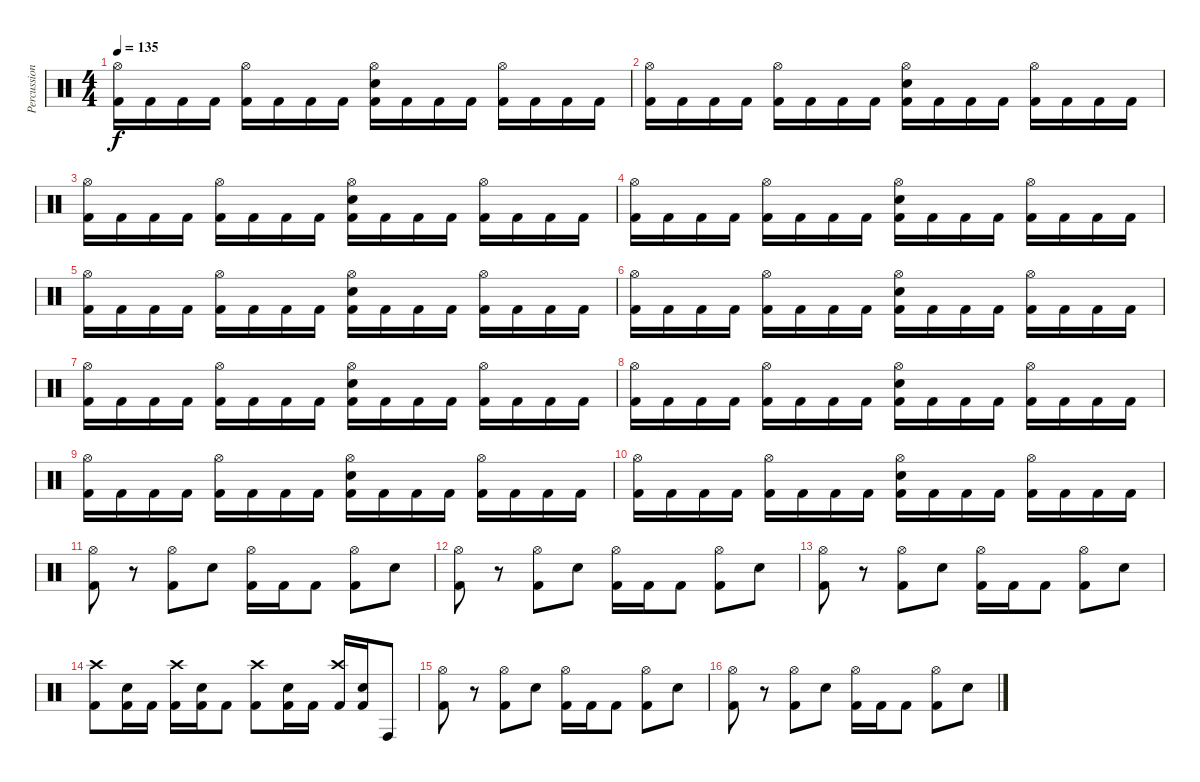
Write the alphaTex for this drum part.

\track ("Percussion" "Percussion") {instrument percussion}
\staff {score}
\articulation defaults
\ts (4 4)
\tempo 135
\clef neutral
\ks c
("Hi-Hat (open)" "Kick (hit) 2").16{dy f} "Kick (hit) 2".16 "Kick (hit) 2".16 "Kick (hit) 2".16 ("Hi-Hat (open)" "Kick (hit) 2").16 "Kick (hit) 2".16 "Kick (hit) 2".16 "Kick (hit) 2".16 ("Hi-Hat (open)" "Snare (hit) 2" "Kick (hit) 2").16 "Kick (hit) 2".16 "Kick (hit) 2".16 "Kick (hit) 2".16 ("Hi-Hat (open)" "Kick (hit) 2").16 "Kick (hit) 2".16 "Kick (hit) 2".16 "Kick (hit) 2".16 |
("Hi-Hat (open)" "Kick (hit) 2").16 "Kick (hit) 2".16 "Kick (hit) 2".16 "Kick (hit) 2".16 ("Hi-Hat (open)" "Kick (hit) 2").16 "Kick (hit) 2".16 "Kick (hit) 2".16 "Kick (hit) 2".16 ("Hi-Hat (open)" "Snare (hit) 2" "Kick (hit) 2").16 "Kick (hit) 2".16 "Kick (hit) 2".16 "Kick (hit) 2".16 ("Hi-Hat (open)" "Kick (hit) 2").16 "Kick (hit) 2".16 "Kick (hit) 2".16 "Kick (hit) 2".16 |
("Hi-Hat (open)" "Kick (hit) 2").16 "Kick (hit) 2".16 "Kick (hit) 2".16 "Kick (hit) 2".16 ("Hi-Hat (open)" "Kick (hit) 2").16 "Kick (hit) 2".16 "Kick (hit) 2".16 "Kick (hit) 2".16 ("Hi-Hat (open)" "Snare (hit) 2" "Kick (hit) 2").16 "Kick (hit) 2".16 "Kick (hit) 2".16 "Kick (hit) 2".16 ("Hi-Hat (open)" "Kick (hit) 2").16 "Kick (hit) 2".16 "Kick (hit) 2".16 "Kick (hit) 2".16 |
("Hi-Hat (open)" "Kick (hit) 2").16 "Kick (hit) 2".16 "Kick (hit) 2".16 "Kick (hit) 2".16 ("Hi-Hat (open)" "Kick (hit) 2").16 "Kick (hit) 2".16 "Kick (hit) 2".16 "Kick (hit) 2".16 ("Hi-Hat (open)" "Snare (hit) 2" "Kick (hit) 2").16 "Kick (hit) 2".16 "Kick (hit) 2".16 "Kick (hit) 2".16 ("Hi-Hat (open)" "Kick (hit) 2").16 "Kick (hit) 2".16 "Kick (hit) 2".16 "Kick (hit) 2".16 |
("Hi-Hat (open)" "Kick (hit) 2").16 "Kick (hit) 2".16 "Kick (hit) 2".16 "Kick (hit) 2".16 ("Hi-Hat (open)" "Kick (hit) 2").16 "Kick (hit) 2".16 "Kick (hit) 2".16 "Kick (hit) 2".16 ("Hi-Hat (open)" "Snare (hit) 2" "Kick (hit) 2").16 "Kick (hit) 2".16 "Kick (hit) 2".16 "Kick (hit) 2".16 ("Hi-Hat (open)" "Kick (hit) 2").16 "Kick (hit) 2".16 "Kick (hit) 2".16 "Kick (hit) 2".16 |
("Hi-Hat (open)" "Kick (hit) 2").16 "Kick (hit) 2".16 "Kick (hit) 2".16 "Kick (hit) 2".16 ("Hi-Hat (open)" "Kick (hit) 2").16 "Kick (hit) 2".16 "Kick (hit) 2".16 "Kick (hit) 2".16 ("Hi-Hat (open)" "Snare (hit) 2" "Kick (hit) 2").16 "Kick (hit) 2".16 "Kick (hit) 2".16 "Kick (hit) 2".16 ("Hi-Hat (open)" "Kick (hit) 2").16 "Kick (hit) 2".16 "Kick (hit) 2".16 "Kick (hit) 2".16 |
("Hi-Hat (open)" "Kick (hit) 2").16 "Kick (hit) 2".16 "Kick (hit) 2".16 "Kick (hit) 2".16 ("Hi-Hat (open)" "Kick (hit) 2").16 "Kick (hit) 2".16 "Kick (hit) 2".16 "Kick (hit) 2".16 ("Hi-Hat (open)" "Snare (hit) 2" "Kick (hit) 2").16 "Kick (hit) 2".16 "Kick (hit) 2".16 "Kick (hit) 2".16 ("Hi-Hat (open)" "Kick (hit) 2").16 "Kick (hit) 2".16 "Kick (hit) 2".16 "Kick (hit) 2".16 |
("Hi-Hat (open)" "Kick (hit) 2").16 "Kick (hit) 2".16 "Kick (hit) 2".16 "Kick (hit) 2".16 ("Hi-Hat (open)" "Kick (hit) 2").16 "Kick (hit) 2".16 "Kick (hit) 2".16 "Kick (hit) 2".16 ("Hi-Hat (open)" "Snare (hit) 2" "Kick (hit) 2").16 "Kick (hit) 2".16 "Kick (hit) 2".16 "Kick (hit) 2".16 ("Hi-Hat (open)" "Kick (hit) 2").16 "Kick (hit) 2".16 "Kick (hit) 2".16 "Kick (hit) 2".16 |
("Hi-Hat (open)" "Kick (hit) 2").16 "Kick (hit) 2".16 "Kick (hit) 2".16 "Kick (hit) 2".16 ("Hi-Hat (open)" "Kick (hit) 2").16 "Kick (hit) 2".16 "Kick (hit) 2".16 "Kick (hit) 2".16 ("Hi-Hat (open)" "Snare (hit) 2" "Kick (hit) 2").16 "Kick (hit) 2".16 "Kick (hit) 2".16 "Kick (hit) 2".16 ("Hi-Hat (open)" "Kick (hit) 2").16 "Kick (hit) 2".16 "Kick (hit) 2".16 "Kick (hit) 2".16 |
("Hi-Hat (open)" "Kick (hit) 2").16 "Kick (hit) 2".16 "Kick (hit) 2".16 "Kick (hit) 2".16 ("Hi-Hat (open)" "Kick (hit) 2").16 "Kick (hit) 2".16 "Kick (hit) 2".16 "Kick (hit) 2".16 ("Hi-Hat (open)" "Snare (hit) 2" "Kick (hit) 2").16 "Kick (hit) 2".16 "Kick (hit) 2".16 "Kick (hit) 2".16 ("Hi-Hat (open)" "Kick (hit) 2").16 "Kick (hit) 2".16 "Kick (hit) 2".16 "Kick (hit) 2".16 |
("Hi-Hat (open)" "Kick (hit) 2").8 r.8 ("Hi-Hat (open)" "Kick (hit) 2").8 "Snare (hit) 2".8 ("Hi-Hat (open)" "Kick (hit) 2").16 "Kick (hit) 2".16 "Kick (hit) 2".8 ("Hi-Hat (open)" "Kick (hit) 2").8 "Snare (hit) 2".8 |
("Hi-Hat (open)" "Kick (hit) 2").8 r.8 ("Hi-Hat (open)" "Kick (hit) 2").8 "Snare (hit) 2".8 ("Hi-Hat (open)" "Kick (hit) 2").16 "Kick (hit) 2".16 "Kick (hit) 2".8 ("Hi-Hat (open)" "Kick (hit) 2").8 "Snare (hit) 2".8 |
("Hi-Hat (open)" "Kick (hit) 2").8 r.8 ("Hi-Hat (open)" "Kick (hit) 2").8 "Snare (hit) 2".8 ("Hi-Hat (open)" "Kick (hit) 2").16 "Kick (hit) 2".16 "Kick (hit) 2".8 ("Hi-Hat (open)" "Kick (hit) 2").8 "Snare (hit) 2".8 |
("Crash high (hit)" "Kick (hit) 2").8 ("Snare (hit) 2" "Kick (hit) 2").16 "Kick (hit) 2".16 ("Crash high (hit)" "Kick (hit) 2").16 ("Snare (hit) 2" "Kick (hit) 2").16 "Kick (hit) 2".8 ("Crash high (hit)" "Kick (hit) 2").8 ("Snare (hit) 2" "Kick (hit) 2").16 "Kick (hit) 2".16 ("Crash high (hit)" "Kick (hit) 2").16 ("Snare (hit) 2" "Kick (hit) 2").16 "Conga high (hit)".8 |
("Hi-Hat (open)" "Kick (hit) 2").8 r.8 ("Hi-Hat (open)" "Kick (hit) 2").8 "Snare (hit) 2".8 ("Hi-Hat (open)" "Kick (hit) 2").16 "Kick (hit) 2".16 "Kick (hit) 2".8 ("Hi-Hat (open)" "Kick (hit) 2").8 "Snare (hit) 2".8 |
("Hi-Hat (open)" "Kick (hit) 2").8 r.8 ("Hi-Hat (open)" "Kick (hit) 2").8 "Snare (hit) 2".8 ("Hi-Hat (open)" "Kick (hit) 2").16 "Kick (hit) 2".16 "Kick (hit) 2".8 ("Hi-Hat (open)" "Kick (hit) 2").8 "Snare (hit) 2".8
